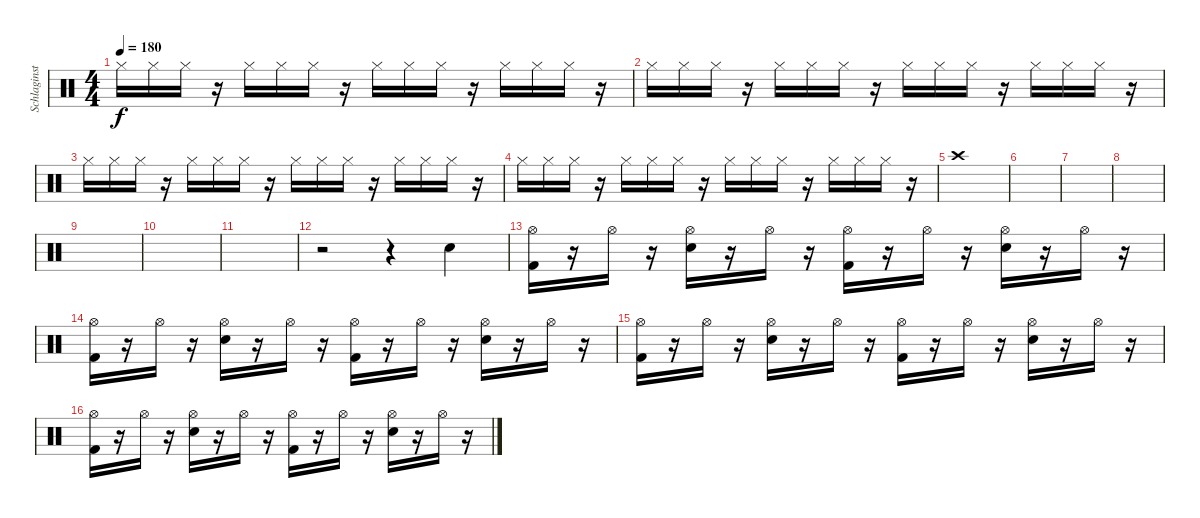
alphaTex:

\track ("Schlaginstrumente - Auswahl" "Schlaginst") {instrument percussion}
\staff {score}
\articulation defaults
\ts (4 4)
\tempo 180
\clef neutral
\ks c "Hi-Hat (closed)".16{dy f} "Hi-Hat (closed)".16 "Hi-Hat (closed)".16
r.16 "Hi-Hat (closed)".16 "Hi-Hat (closed)".16 "Hi-Hat (closed)".16 r.16 "Hi-Hat (closed)".16 "Hi-Hat (closed)".16 "Hi-Hat (closed)".16 r.16 "Hi-Hat (closed)".16 "Hi-Hat (closed)".16 "Hi-Hat (closed)".16 r.16 |
"Hi-Hat (closed)".16 "Hi-Hat (closed)".16 "Hi-Hat (closed)".16 r.16 "Hi-Hat (closed)".16 "Hi-Hat (closed)".16 "Hi-Hat (closed)".16 r.16 "Hi-Hat (closed)".16 "Hi-Hat (closed)".16 "Hi-Hat (closed)".16 r.16 "Hi-Hat (closed)".16 "Hi-Hat (closed)".16 "Hi-Hat (closed)".16 r.16 |
"Hi-Hat (closed)".16 "Hi-Hat (closed)".16 "Hi-Hat (closed)".16 r.16 "Hi-Hat (closed)".16 "Hi-Hat (closed)".16 "Hi-Hat (closed)".16 r.16 "Hi-Hat (closed)".16 "Hi-Hat (closed)".16 "Hi-Hat (closed)".16 r.16 "Hi-Hat (closed)".16 "Hi-Hat (closed)".16 "Hi-Hat (closed)".16 r.16 |
"Hi-Hat (closed)".16 "Hi-Hat (closed)".16 "Hi-Hat (closed)".16 r.16 "Hi-Hat (closed)".16 "Hi-Hat (closed)".16 "Hi-Hat (closed)".16 r.16 "Hi-Hat (closed)".16 "Hi-Hat (closed)".16 "Hi-Hat (closed)".16 r.16 "Hi-Hat (closed)".16 "Hi-Hat (closed)".16 "Hi-Hat (closed)".16 r.16 |
"Crash high (hit)".1 |
|
|
|
|
|
|
r.2 r.4 "Snare (hit) 2".4 |
("Hi-Hat (open)" "Kick (hit) 2").16 r.16 "Hi-Hat (open)".16 r.16 ("Hi-Hat (open)" "Snare (hit) 2").16 r.16 "Hi-Hat (open)".16 r.16 ("Hi-Hat (open)" "Kick (hit) 2").16 r.16 "Hi-Hat (open)".16 r.16 ("Hi-Hat (open)" "Snare (hit) 2").16 r.16 "Hi-Hat (open)".16 r.16 |
("Hi-Hat (open)" "Kick (hit) 2").16 r.16 "Hi-Hat (open)".16 r.16 ("Hi-Hat (open)" "Snare (hit) 2").16 r.16 "Hi-Hat (open)".16 r.16 ("Hi-Hat (open)" "Kick (hit) 2").16 r.16 "Hi-Hat (open)".16 r.16 ("Hi-Hat (open)" "Snare (hit) 2").16 r.16 "Hi-Hat (open)".16 r.16 |
("Hi-Hat (open)" "Kick (hit) 2").16 r.16 "Hi-Hat (open)".16 r.16 ("Hi-Hat (open)" "Snare (hit) 2").16 r.16 "Hi-Hat (open)".16 r.16 ("Hi-Hat (open)" "Kick (hit) 2").16 r.16 "Hi-Hat (open)".16 r.16 ("Hi-Hat (open)" "Snare (hit) 2").16 r.16 "Hi-Hat (open)".16 r.16 |
("Hi-Hat (open)" "Kick (hit) 2").16 r.16 "Hi-Hat (open)".16 r.16 ("Hi-Hat (open)" "Snare (hit) 2").16 r.16 "Hi-Hat (open)".16 r.16 ("Hi-Hat (open)" "Kick (hit) 2").16 r.16 "Hi-Hat (open)".16 r.16 ("Hi-Hat (open)" "Snare (hit) 2").16 r.16 "Hi-Hat (open)".16 r.16
